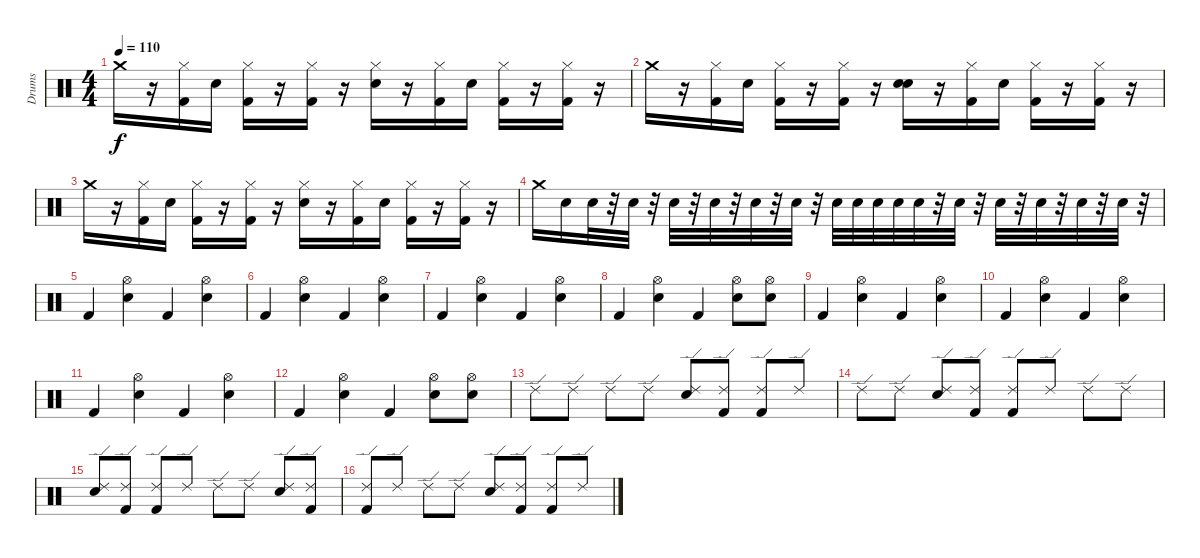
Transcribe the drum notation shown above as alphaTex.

\track ("Drums" "Drums") {instrument percussion}
\staff {score}
\articulation defaults
\ts (4 4)
\tempo 110
\clef neutral
\ks c "Crash medium (hit)".16{dy f}
r.16 ("Kick (hit) 2" "Hi-Hat (closed)").16 "Electric Snare (hit)".16 ("Kick (hit) 2" "Hi-Hat (closed)").16 r.16 ("Kick (hit) 2" "Hi-Hat (closed)").16 r.16 ("Hi-Hat (closed)" "Electric Snare (hit)").16 r.16 ("Kick (hit) 2" "Hi-Hat (closed)").16 "Electric Snare (hit)".16 ("Kick (hit) 2" "Hi-Hat (closed)").16 r.16 ("Kick (hit) 2" "Hi-Hat (closed)").16 r.16 |
"Crash medium (hit)".16 r.16 ("Kick (hit) 2" "Hi-Hat (closed)").16 "Electric Snare (hit)".16 ("Kick (hit) 2" "Hi-Hat (closed)").16 r.16 ("Kick (hit) 2" "Hi-Hat (closed)").16 r.16 ("Snare (hit)" "Electric Snare (hit)").16 r.16 ("Kick (hit) 2" "Hi-Hat (closed)").16 "Electric Snare (hit)".16 ("Kick (hit) 2" "Hi-Hat (closed)").16 r.16 ("Kick (hit) 2" "Hi-Hat (closed)").16 r.16 |
"Crash medium (hit)".16 r.16 ("Kick (hit) 2" "Hi-Hat (closed)").16 "Electric Snare (hit)".16 ("Kick (hit) 2" "Hi-Hat (closed)").16 r.16 ("Kick (hit) 2" "Hi-Hat (closed)").16 r.16 ("Hi-Hat (closed)" "Electric Snare (hit)").16 r.16 ("Kick (hit) 2" "Hi-Hat (closed)").16 "Electric Snare (hit)".16 ("Kick (hit) 2" "Hi-Hat (closed)").16 r.16 ("Kick (hit) 2" "Hi-Hat (closed)").16 r.16 |
"Crash medium (hit)".16 "Electric Snare (hit)".16 "Electric Snare (hit)".32 r.32 "Electric Snare (hit)".32 r.32 "Electric Snare (hit)".32 r.32 "Electric Snare (hit)".32 r.32 "Electric Snare (hit)".32 r.32 "Electric Snare (hit)".32 r.32 "Electric Snare (hit)".32 "Electric Snare (hit)".32 "Electric Snare (hit)".32 "Electric Snare (hit)".32 "Electric Snare (hit)".32 r.32 "Electric Snare (hit)".32 r.32 "Electric Snare (hit)".32 r.32 "Electric Snare (hit)".32 r.32 "Electric Snare (hit)".32 r.32 "Electric Snare (hit)".32 r.32 |
"Kick (hit) 2".4 ("Hi-Hat (open)" "Electric Snare (hit)").4 "Kick (hit) 2".4 ("Hi-Hat (open)" "Electric Snare (hit)").4 |
"Kick (hit) 2".4 ("Hi-Hat (open)" "Electric Snare (hit)").4 "Kick (hit) 2".4 ("Hi-Hat (open)" "Electric Snare (hit)").4 |
"Kick (hit) 2".4 ("Hi-Hat (open)" "Electric Snare (hit)").4 "Kick (hit) 2".4 ("Hi-Hat (open)" "Electric Snare (hit)").4 |
"Kick (hit) 2".4 ("Hi-Hat (open)" "Electric Snare (hit)").4 "Kick (hit) 2".4 ("Hi-Hat (open)" "Electric Snare (hit)").8 ("Hi-Hat (open)" "Electric Snare (hit)").8 |
"Kick (hit) 2".4 ("Hi-Hat (open)" "Electric Snare (hit)").4 "Kick (hit) 2".4 ("Hi-Hat (open)" "Electric Snare (hit)").4 |
"Kick (hit) 2".4 ("Hi-Hat (open)" "Electric Snare (hit)").4 "Kick (hit) 2".4 ("Hi-Hat (open)" "Electric Snare (hit)").4 |
"Kick (hit) 2".4 ("Hi-Hat (open)" "Electric Snare (hit)").4 "Kick (hit) 2".4 ("Hi-Hat (open)" "Electric Snare (hit)").4 |
"Kick (hit) 2".4 ("Hi-Hat (open)" "Electric Snare (hit)").4 "Kick (hit) 2".4 ("Hi-Hat (open)" "Electric Snare (hit)").8 ("Hi-Hat (open)" "Electric Snare (hit)").8 |
"Ride (edge) 2".8 "Ride (edge) 2".8 "Ride (edge) 2".8 "Ride (edge) 2".8 ("Ride (edge) 2" "Electric Snare (hit)").8 ("Kick (hit) 2" "Ride (edge) 2").8 ("Kick (hit) 2" "Ride (edge) 2").8 "Ride (edge) 2".8 |
"Ride (edge) 2".8 "Ride (edge) 2".8 ("Ride (edge) 2" "Electric Snare (hit)").8 ("Kick (hit) 2" "Ride (edge) 2").8 ("Kick (hit) 2" "Ride (edge) 2").8 "Ride (edge) 2".8 "Ride (edge) 2".8 "Ride (edge) 2".8 |
("Ride (edge) 2" "Electric Snare (hit)").8 ("Kick (hit) 2" "Ride (edge) 2").8 ("Kick (hit) 2" "Ride (edge) 2").8 "Ride (edge) 2".8 "Ride (edge) 2".8 "Ride (edge) 2".8 ("Ride (edge) 2" "Electric Snare (hit)").8 ("Kick (hit) 2" "Ride (edge) 2").8 |
("Kick (hit) 2" "Ride (edge) 2").8 "Ride (edge) 2".8 "Ride (edge) 2".8 "Ride (edge) 2".8 ("Ride (edge) 2" "Electric Snare (hit)").8 ("Kick (hit) 2" "Ride (edge) 2").8 ("Kick (hit) 2" "Ride (edge) 2").8 "Ride (edge) 2".8
